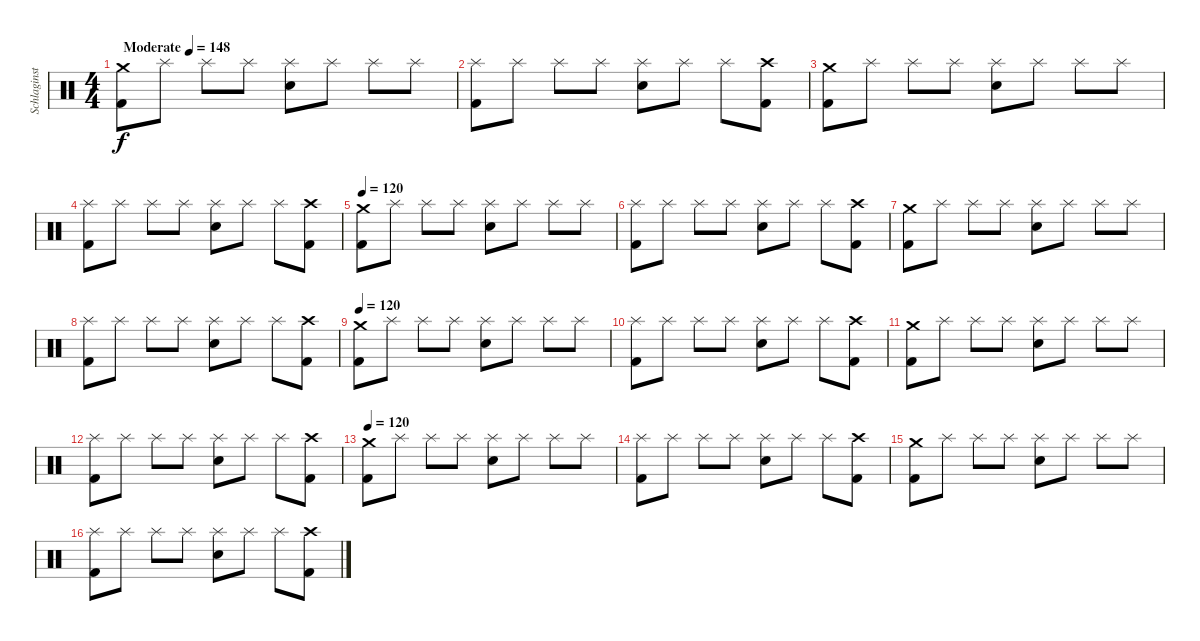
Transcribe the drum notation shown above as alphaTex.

\track ("Schlaginstrumente - Auswahl" "Schlaginst") {instrument percussion}
\staff {score}
\articulation defaults
\ts (4 4)
\tempo (148 "Moderate")
\tempo 120
\tempo (148 "Moderate")
\clef neutral
\ks c
("Crash medium (hit)" "Kick (hit) 2").8{dy f} "Splash (hit)".8 "Splash (hit)".8 "Splash (hit)".8 ("Splash (hit)" "Electric Snare (hit)").8 "Splash (hit)".8 "Splash (hit)".8 "Splash (hit)".8 |
("Splash (hit)" "Kick (hit) 2").8 "Splash (hit)".8 "Splash (hit)".8 "Splash (hit)".8 ("Splash (hit)" "Electric Snare (hit)").8 "Splash (hit)".8 "Splash (hit)".8 ("Crash high (hit)" "Kick (hit) 2").8 |
("Crash medium (hit)" "Kick (hit) 2").8 "Splash (hit)".8 "Splash (hit)".8 "Splash (hit)".8 ("Splash (hit)" "Electric Snare (hit)").8 "Splash (hit)".8 "Splash (hit)".8 "Splash (hit)".8 |
("Splash (hit)" "Kick (hit) 2").8 "Splash (hit)".8 "Splash (hit)".8 "Splash (hit)".8 ("Splash (hit)" "Electric Snare (hit)").8 "Splash (hit)".8 "Splash (hit)".8 ("Crash high (hit)" "Kick (hit) 2").8 |
\tempo 120
("Crash medium (hit)" "Kick (hit) 2").8 "Splash (hit)".8 "Splash (hit)".8 "Splash (hit)".8 ("Splash (hit)" "Electric Snare (hit)").8 "Splash (hit)".8 "Splash (hit)".8 "Splash (hit)".8 |
("Splash (hit)" "Kick (hit) 2").8 "Splash (hit)".8 "Splash (hit)".8 "Splash (hit)".8 ("Splash (hit)" "Electric Snare (hit)").8 "Splash (hit)".8 "Splash (hit)".8 ("Crash high (hit)" "Kick (hit) 2").8 |
("Crash medium (hit)" "Kick (hit) 2").8 "Splash (hit)".8 "Splash (hit)".8 "Splash (hit)".8 ("Splash (hit)" "Electric Snare (hit)").8 "Splash (hit)".8 "Splash (hit)".8 "Splash (hit)".8 |
("Splash (hit)" "Kick (hit) 2").8 "Splash (hit)".8 "Splash (hit)".8 "Splash (hit)".8 ("Splash (hit)" "Electric Snare (hit)").8 "Splash (hit)".8 "Splash (hit)".8 ("Crash high (hit)" "Kick (hit) 2").8 |
\tempo 120
("Crash medium (hit)" "Kick (hit) 2").8 "Splash (hit)".8 "Splash (hit)".8 "Splash (hit)".8 ("Splash (hit)" "Electric Snare (hit)").8 "Splash (hit)".8 "Splash (hit)".8 "Splash (hit)".8 |
("Splash (hit)" "Kick (hit) 2").8 "Splash (hit)".8 "Splash (hit)".8 "Splash (hit)".8 ("Splash (hit)" "Electric Snare (hit)").8 "Splash (hit)".8 "Splash (hit)".8 ("Crash high (hit)" "Kick (hit) 2").8 |
("Crash medium (hit)" "Kick (hit) 2").8 "Splash (hit)".8 "Splash (hit)".8 "Splash (hit)".8 ("Splash (hit)" "Electric Snare (hit)").8 "Splash (hit)".8 "Splash (hit)".8 "Splash (hit)".8 |
("Splash (hit)" "Kick (hit) 2").8 "Splash (hit)".8 "Splash (hit)".8 "Splash (hit)".8 ("Splash (hit)" "Electric Snare (hit)").8 "Splash (hit)".8 "Splash (hit)".8 ("Crash high (hit)" "Kick (hit) 2").8 |
\tempo 120
("Crash medium (hit)" "Kick (hit) 2").8 "Splash (hit)".8 "Splash (hit)".8 "Splash (hit)".8 ("Splash (hit)" "Electric Snare (hit)").8 "Splash (hit)".8 "Splash (hit)".8 "Splash (hit)".8 |
("Splash (hit)" "Kick (hit) 2").8 "Splash (hit)".8 "Splash (hit)".8 "Splash (hit)".8 ("Splash (hit)" "Electric Snare (hit)").8 "Splash (hit)".8 "Splash (hit)".8 ("Crash high (hit)" "Kick (hit) 2").8 |
("Crash medium (hit)" "Kick (hit) 2").8 "Splash (hit)".8 "Splash (hit)".8 "Splash (hit)".8 ("Splash (hit)" "Electric Snare (hit)").8 "Splash (hit)".8 "Splash (hit)".8 "Splash (hit)".8 |
("Splash (hit)" "Kick (hit) 2").8 "Splash (hit)".8 "Splash (hit)".8 "Splash (hit)".8 ("Splash (hit)" "Electric Snare (hit)").8 "Splash (hit)".8 "Splash (hit)".8 ("Crash high (hit)" "Kick (hit) 2").8
